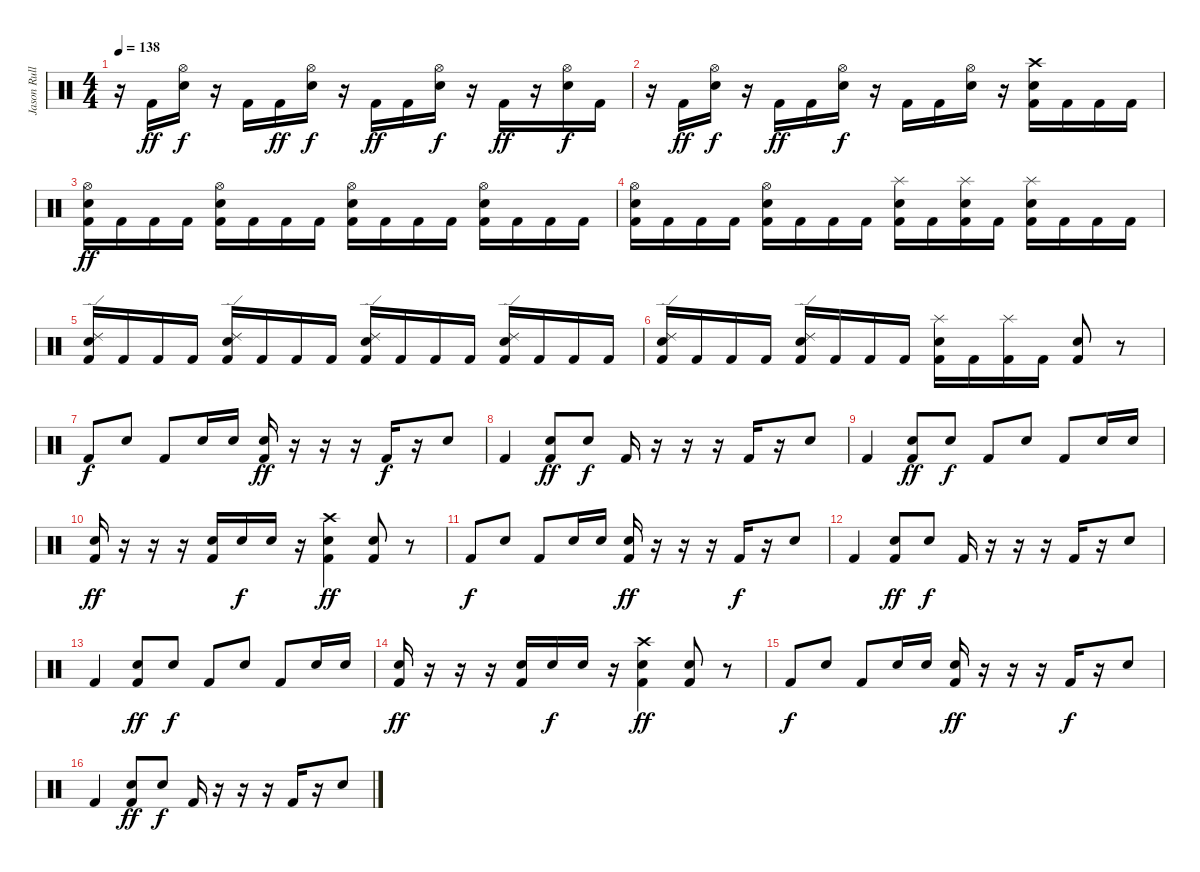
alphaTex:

\track ("Jason Rullo" "Jason Rull") {instrument percussion}
\staff {score}
\articulation defaults
\ts (4 4)
\tempo 138
\clef neutral
\ks c
r.16{dy f} "Kick (hit) 2".16{dy ff} ("Electric Snare (hit)" "Hi-Hat (open)").16{dy f} r.16 "Kick (hit) 2".16 "Kick (hit) 2".16{dy ff} ("Electric Snare (hit)" "Hi-Hat (open)").16{dy f} r.16 "Kick (hit) 2".16{dy ff} "Kick (hit) 2".16 ("Electric Snare (hit)" "Hi-Hat (open)").16{dy f} r.16 "Kick (hit) 2".16{dy ff} r.16 ("Electric Snare (hit)" "Hi-Hat (open)").16{dy f} "Kick (hit) 2".16 |
r.16 "Kick (hit) 2".16{dy ff} ("Electric Snare (hit)" "Hi-Hat (open)").16{dy f} r.16 "Kick (hit) 2".16{dy ff} "Kick (hit) 2".16 ("Electric Snare (hit)" "Hi-Hat (open)").16{dy f} r.16 "Kick (hit) 2".16 "Kick (hit) 2".16 ("Electric Snare (hit)" "Hi-Hat (open)").16 r.16 ("Kick (hit) 2" "Electric Snare (hit)" "Crash high (hit)").16 "Kick (hit) 2".16 "Kick (hit) 2".16 "Kick (hit) 2".16 |
("Kick (hit) 2" "Electric Snare (hit)" "Hi-Hat (open)").16{dy ff} "Kick (hit) 2".16 "Kick (hit) 2".16 "Kick (hit) 2".16 ("Kick (hit) 2" "Electric Snare (hit)" "Hi-Hat (open)").16 "Kick (hit) 2".16 "Kick (hit) 2".16 "Kick (hit) 2".16 ("Kick (hit) 2" "Electric Snare (hit)" "Hi-Hat (open)").16 "Kick (hit) 2".16 "Kick (hit) 2".16 "Kick (hit) 2".16 ("Kick (hit) 2" "Electric Snare (hit)" "Hi-Hat (open)").16 "Kick (hit) 2".16 "Kick (hit) 2".16 "Kick (hit) 2".16 |
("Kick (hit) 2" "Electric Snare (hit)" "Hi-Hat (open)").16 "Kick (hit) 2".16 "Kick (hit) 2".16 "Kick (hit) 2".16 ("Kick (hit) 2" "Electric Snare (hit)" "Hi-Hat (open)").16 "Kick (hit) 2".16 "Kick (hit) 2".16 "Kick (hit) 2".16 ("Kick (hit) 2" "Electric Snare (hit)" "Splash (hit)").16 "Kick (hit) 2".16 ("Kick (hit) 2" "Electric Snare (hit)" "Splash (hit)").16 "Kick (hit) 2".16 ("Kick (hit) 2" "Electric Snare (hit)" "Splash (hit)").16 "Kick (hit) 2".16 "Kick (hit) 2".16 "Kick (hit) 2".16 |
("Kick (hit) 2" "Electric Snare (hit)" "Ride (edge) 2").16 "Kick (hit) 2".16 "Kick (hit) 2".16 "Kick (hit) 2".16 ("Kick (hit) 2" "Electric Snare (hit)" "Ride (edge) 2").16 "Kick (hit) 2".16 "Kick (hit) 2".16 "Kick (hit) 2".16 ("Kick (hit) 2" "Electric Snare (hit)" "Ride (edge) 2").16 "Kick (hit) 2".16 "Kick (hit) 2".16 "Kick (hit) 2".16 ("Kick (hit) 2" "Electric Snare (hit)" "Ride (edge) 2").16 "Kick (hit) 2".16 "Kick (hit) 2".16 "Kick (hit) 2".16 |
("Kick (hit) 2" "Electric Snare (hit)" "Ride (edge) 2").16 "Kick (hit) 2".16 "Kick (hit) 2".16 "Kick (hit) 2".16 ("Kick (hit) 2" "Electric Snare (hit)" "Ride (edge) 2").16 "Kick (hit) 2".16 "Kick (hit) 2".16 "Kick (hit) 2".16 ("Kick (hit) 2" "Electric Snare (hit)" "Splash (hit)").16 "Kick (hit) 2".16 ("Kick (hit) 2" "Splash (hit)").16 "Kick (hit) 2".16 ("Kick (hit) 2" "Electric Snare (hit)").8 r.8 |
"Kick (hit) 2".8{dy f} "Electric Snare (hit)".8 "Kick (hit) 2".8 "Electric Snare (hit)".16 "Electric Snare (hit)".16 ("Kick (hit) 2" "Electric Snare (hit)").16{dy ff} r.16 r.16 r.16 "Kick (hit) 2".16{dy f} r.16 "Electric Snare (hit)".8 |
"Kick (hit) 2".4 ("Kick (hit) 2" "Electric Snare (hit)").8{dy ff} "Electric Snare (hit)".8{dy f} "Kick (hit) 2".16 r.16 r.16 r.16 "Kick (hit) 2".16 r.16 "Electric Snare (hit)".8 |
"Kick (hit) 2".4 ("Kick (hit) 2" "Electric Snare (hit)").8{dy ff} "Electric Snare (hit)".8{dy f} "Kick (hit) 2".8 "Electric Snare (hit)".8 "Kick (hit) 2".8 "Electric Snare (hit)".16 "Electric Snare (hit)".16 |
("Kick (hit) 2" "Electric Snare (hit)").16{dy ff} r.16 r.16 r.16 ("Kick (hit) 2" "Electric Snare (hit)").16 "Electric Snare (hit)".16{dy f} "Electric Snare (hit)".16 r.16 ("Kick (hit) 2" "Electric Snare (hit)" "Crash high (hit)").4{dy ff} ("Kick (hit) 2" "Electric Snare (hit)").8 r.8 |
"Kick (hit) 2".8{dy f} "Electric Snare (hit)".8 "Kick (hit) 2".8 "Electric Snare (hit)".16 "Electric Snare (hit)".16 ("Kick (hit) 2" "Electric Snare (hit)").16{dy ff} r.16 r.16 r.16 "Kick (hit) 2".16{dy f} r.16 "Electric Snare (hit)".8 |
"Kick (hit) 2".4 ("Kick (hit) 2" "Electric Snare (hit)").8{dy ff} "Electric Snare (hit)".8{dy f} "Kick (hit) 2".16 r.16 r.16 r.16 "Kick (hit) 2".16 r.16 "Electric Snare (hit)".8 |
"Kick (hit) 2".4 ("Kick (hit) 2" "Electric Snare (hit)").8{dy ff} "Electric Snare (hit)".8{dy f} "Kick (hit) 2".8 "Electric Snare (hit)".8 "Kick (hit) 2".8 "Electric Snare (hit)".16 "Electric Snare (hit)".16 |
("Kick (hit) 2" "Electric Snare (hit)").16{dy ff} r.16 r.16 r.16 ("Kick (hit) 2" "Electric Snare (hit)").16 "Electric Snare (hit)".16{dy f} "Electric Snare (hit)".16 r.16 ("Kick (hit) 2" "Electric Snare (hit)" "Crash high (hit)").4{dy ff} ("Kick (hit) 2" "Electric Snare (hit)").8 r.8 |
"Kick (hit) 2".8{dy f} "Electric Snare (hit)".8 "Kick (hit) 2".8 "Electric Snare (hit)".16 "Electric Snare (hit)".16 ("Kick (hit) 2" "Electric Snare (hit)").16{dy ff} r.16 r.16 r.16 "Kick (hit) 2".16{dy f} r.16 "Electric Snare (hit)".8 |
"Kick (hit) 2".4 ("Kick (hit) 2" "Electric Snare (hit)").8{dy ff} "Electric Snare (hit)".8{dy f} "Kick (hit) 2".16 r.16 r.16 r.16 "Kick (hit) 2".16 r.16 "Electric Snare (hit)".8
